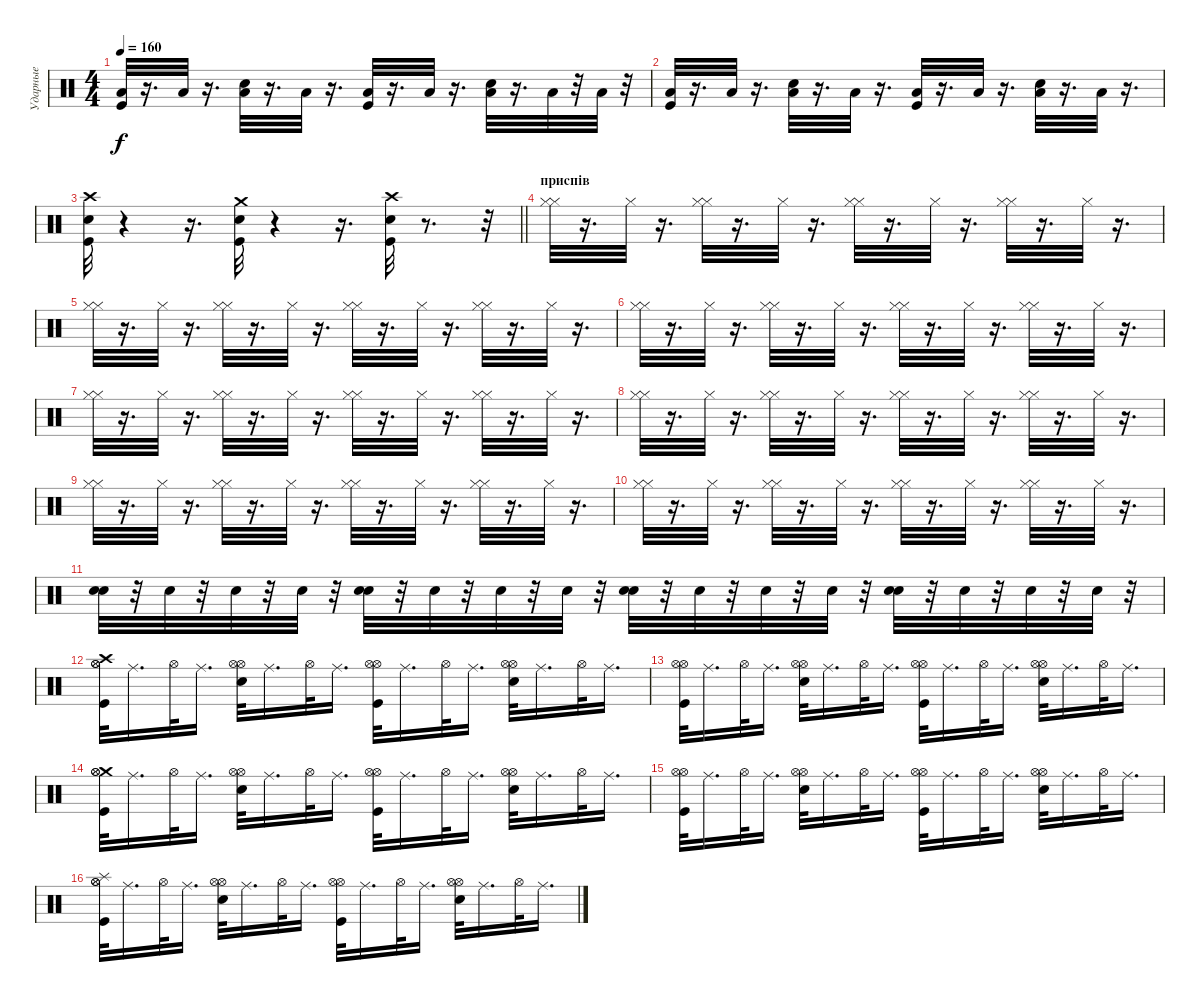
\track ("Ударные" "Ударные") {instrument percussion}
\staff {score}
\articulation defaults
\ts (4 4)
\tempo 160
\clef neutral
\ks c
("Kick (hit)" "Low Floor Tom (hit)").32{dy f} r.16{d} "Low Floor Tom (hit)".32 r.16{d} ("Low Floor Tom (hit)" "Snare (hit) 2").32 r.16{d} "Low Floor Tom (hit)".32 r.16{d} ("Kick (hit)" "Low Floor Tom (hit)").32 r.16{d} "Low Floor Tom (hit)".32 r.16{d} ("Low Floor Tom (hit)" "Snare (hit) 2").32 r.16{d} "Low Floor Tom (hit)".32 r.32 "Low Floor Tom (hit)".32 r.32 |
("Kick (hit)" "Low Floor Tom (hit)").32 r.16{d} "Low Floor Tom (hit)".32 r.16{d} ("Low Floor Tom (hit)" "Snare (hit) 2").32 r.16{d} "Low Floor Tom (hit)".32 r.16{d} ("Low Floor Tom (hit)" "Kick (hit)").32 r.16{d} "Low Floor Tom (hit)".32 r.16{d} ("Snare (hit) 2" "Low Floor Tom (hit)").32 r.16{d} "Low Floor Tom (hit)".32 r.16{d} |
\barLineRight lightlight
("Crash high (hit)" "Kick (hit)" "Snare (hit) 2").32 r.4 r.16{d} ("Kick (hit)" "Crash medium (hit)" "Snare (hit) 2").32 r.4 r.16{d} ("Crash high (hit)" "Kick (hit)" "Snare (hit) 2").32 r.8{d} r.32 |
\section ("" "приспів")
("Hi-Hat (closed)" "Hi-Hat (closed)").32 r.16{d} "Hi-Hat (closed)".32 r.16{d} ("Hi-Hat (closed)" "Hi-Hat (closed)").32 r.16{d} "Hi-Hat (closed)".32 r.16{d} ("Hi-Hat (closed)" "Hi-Hat (closed)").32 r.16{d} "Hi-Hat (closed)".32 r.16{d} ("Hi-Hat (closed)" "Hi-Hat (closed)").32 r.16{d} "Hi-Hat (closed)".32 r.16{d} |
("Hi-Hat (closed)" "Hi-Hat (closed)").32 r.16{d} "Hi-Hat (closed)".32 r.16{d} ("Hi-Hat (closed)" "Hi-Hat (closed)").32 r.16{d} "Hi-Hat (closed)".32 r.16{d} ("Hi-Hat (closed)" "Hi-Hat (closed)").32 r.16{d} "Hi-Hat (closed)".32 r.16{d} ("Hi-Hat (closed)" "Hi-Hat (closed)").32 r.16{d} "Hi-Hat (closed)".32 r.16{d} |
("Hi-Hat (closed)" "Hi-Hat (closed)").32 r.16{d} "Hi-Hat (closed)".32 r.16{d} ("Hi-Hat (closed)" "Hi-Hat (closed)").32 r.16{d} "Hi-Hat (closed)".32 r.16{d} ("Hi-Hat (closed)" "Hi-Hat (closed)").32 r.16{d} "Hi-Hat (closed)".32 r.16{d} ("Hi-Hat (closed)" "Hi-Hat (closed)").32 r.16{d} "Hi-Hat (closed)".32 r.16{d} |
("Hi-Hat (closed)" "Hi-Hat (closed)").32 r.16{d} "Hi-Hat (closed)".32 r.16{d} ("Hi-Hat (closed)" "Hi-Hat (closed)").32 r.16{d} "Hi-Hat (closed)".32 r.16{d} ("Hi-Hat (closed)" "Hi-Hat (closed)").32 r.16{d} "Hi-Hat (closed)".32 r.16{d} ("Hi-Hat (closed)" "Hi-Hat (closed)").32 r.16{d} "Hi-Hat (closed)".32 r.16{d} |
("Hi-Hat (closed)" "Hi-Hat (closed)").32 r.16{d} "Hi-Hat (closed)".32 r.16{d} ("Hi-Hat (closed)" "Hi-Hat (closed)").32 r.16{d} "Hi-Hat (closed)".32 r.16{d} ("Hi-Hat (closed)" "Hi-Hat (closed)").32 r.16{d} "Hi-Hat (closed)".32 r.16{d} ("Hi-Hat (closed)" "Hi-Hat (closed)").32 r.16{d} "Hi-Hat (closed)".32 r.16{d} |
("Hi-Hat (closed)" "Hi-Hat (closed)").32 r.16{d} "Hi-Hat (closed)".32 r.16{d} ("Hi-Hat (closed)" "Hi-Hat (closed)").32 r.16{d} "Hi-Hat (closed)".32 r.16{d} ("Hi-Hat (closed)" "Hi-Hat (closed)").32 r.16{d} "Hi-Hat (closed)".32 r.16{d} ("Hi-Hat (closed)" "Hi-Hat (closed)").32 r.16{d} "Hi-Hat (closed)".32 r.16{d} |
("Hi-Hat (closed)" "Hi-Hat (closed)").32 r.16{d} "Hi-Hat (closed)".32 r.16{d} ("Hi-Hat (closed)" "Hi-Hat (closed)").32 r.16{d} "Hi-Hat (closed)".32 r.16{d} ("Hi-Hat (closed)" "Hi-Hat (closed)").32 r.16{d} "Hi-Hat (closed)".32 r.16{d} ("Hi-Hat (closed)" "Hi-Hat (closed)").32 r.16{d} "Hi-Hat (closed)".32 r.16{d} |
("Snare (hit) 2" "Snare (hit) 2").32 r.32 "Snare (hit) 2".32 r.32 "Snare (hit) 2".32 r.32 "Snare (hit) 2".32 r.32 ("Snare (hit) 2" "Snare (hit) 2").32 r.32 "Snare (hit) 2".32 r.32 "Snare (hit) 2".32 r.32 "Snare (hit) 2".32 r.32 ("Snare (hit) 2" "Snare (hit) 2").32 r.32 "Snare (hit) 2".32 r.32 "Snare (hit) 2".32 r.32 "Snare (hit) 2".32 r.32 ("Snare (hit) 2" "Snare (hit) 2").32 r.32 "Snare (hit) 2".32 r.32 "Snare (hit) 2".32 r.32 "Snare (hit) 2".32 r.32 |
("Crash high (hit)" "Kick (hit)" "Hi-Hat (open)" "Hi-Hat (open)").32 "Ride (middle)".16{d} "Hi-Hat (open)".32 "Ride (middle)".16{d} ("Hi-Hat (open)" "Snare (hit) 2" "Hi-Hat (open)").32 "Ride (middle)".16{d} "Hi-Hat (open)".32 "Ride (middle)".16{d} ("Hi-Hat (open)" "Kick (hit)" "Hi-Hat (open)").32 "Ride (middle)".16{d} "Hi-Hat (open)".32 "Ride (middle)".16{d} ("Hi-Hat (open)" "Hi-Hat (open)" "Snare (hit) 2").32 "Ride (middle)".16{d} "Hi-Hat (open)".32 "Ride (middle)".16{d} |
("Hi-Hat (open)" "Hi-Hat (open)" "Kick (hit)").32 "Ride (middle)".16{d} "Hi-Hat (open)".32 "Ride (middle)".16{d} ("Snare (hit) 2" "Hi-Hat (open)" "Hi-Hat (open)").32 "Ride (middle)".16{d} "Hi-Hat (open)".32 "Ride (middle)".16{d} ("Kick (hit)" "Hi-Hat (open)" "Hi-Hat (open)").32 "Ride (middle)".16{d} "Hi-Hat (open)".32 "Ride (middle)".16{d} ("Hi-Hat (open)" "Hi-Hat (open)" "Snare (hit) 2").32 "Ride (middle)".16{d} "Hi-Hat (open)".32 "Ride (middle)".16{d} |
("Crash medium (hit)" "Hi-Hat (open)" "Kick (hit)" "Hi-Hat (open)").32 "Ride (middle)".16{d} "Hi-Hat (open)".32 "Ride (middle)".16{d} ("Hi-Hat (open)" "Snare (hit) 2" "Hi-Hat (open)").32 "Ride (middle)".16{d} "Hi-Hat (open)".32 "Ride (middle)".16{d} ("Kick (hit)" "Hi-Hat (open)" "Hi-Hat (open)").32 "Ride (middle)".16{d} "Hi-Hat (open)".32 "Ride (middle)".16{d} ("Hi-Hat (open)" "Hi-Hat (open)" "Snare (hit) 2").32 "Ride (middle)".16{d} "Hi-Hat (open)".32 "Ride (middle)".16{d} |
("Kick (hit)" "Hi-Hat (open)" "Hi-Hat (open)").32 "Ride (middle)".16{d} "Hi-Hat (open)".32 "Ride (middle)".16{d} ("Snare (hit) 2" "Hi-Hat (open)" "Hi-Hat (open)").32 "Ride (middle)".16{d} "Hi-Hat (open)".32 "Ride (middle)".16{d} ("Kick (hit)" "Hi-Hat (open)" "Hi-Hat (open)").32 "Ride (middle)".16{d} "Hi-Hat (open)".32 "Ride (middle)".16{d} ("Hi-Hat (open)" "Snare (hit) 2" "Hi-Hat (open)").32 "Ride (middle)".16{d} "Hi-Hat (open)".32 "Ride (middle)".16{d} |
("Splash (hit)" "Hi-Hat (open)" "Kick (hit)" "Hi-Hat (open)").32 "Ride (middle)".16{d} "Hi-Hat (open)".32 "Ride (middle)".16{d} ("Hi-Hat (open)" "Hi-Hat (open)" "Snare (hit) 2").32 "Ride (middle)".16{d} "Hi-Hat (open)".32 "Ride (middle)".16{d} ("Hi-Hat (open)" "Hi-Hat (open)" "Kick (hit)").32 "Ride (middle)".16{d} "Hi-Hat (open)".32 "Ride (middle)".16{d} ("Snare (hit) 2" "Hi-Hat (open)" "Hi-Hat (open)").32 "Ride (middle)".16{d} "Hi-Hat (open)".32 "Ride (middle)".16{d}
